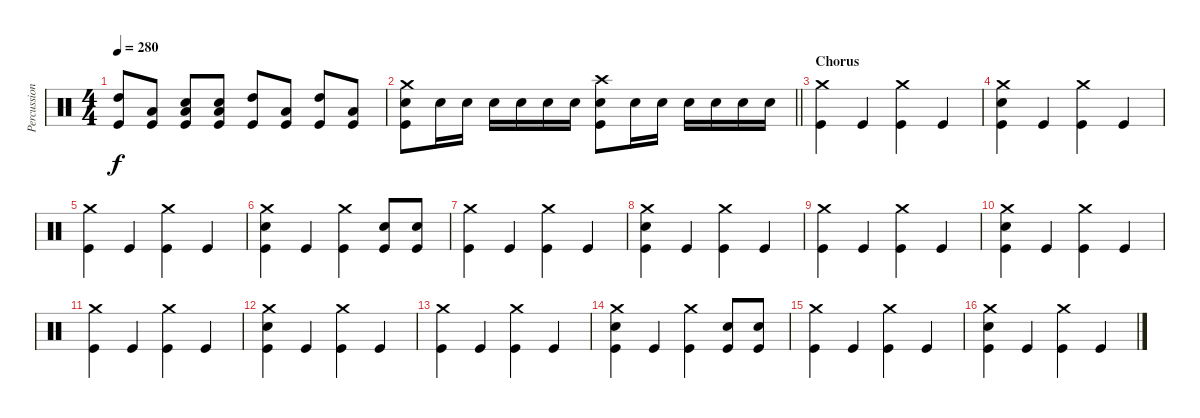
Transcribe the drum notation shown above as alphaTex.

\track ("Percussion" "Percussion") {instrument percussion}
\staff {score}
\articulation defaults
\ts (4 4)
\tempo 280
\clef neutral
\ks c
("High Tom (hit)" "Kick (hit)").8{dy f} ("Low Floor Tom (hit)" "Kick (hit)").8 ("Low Floor Tom (hit)" "Electric Snare (hit)" "Kick (hit)").8 ("Low Floor Tom (hit)" "Electric Snare (hit)" "Kick (hit)").8 ("High Tom (hit)" "Kick (hit)").8 ("Low Floor Tom (hit)" "Kick (hit)").8 ("High Tom (hit)" "Kick (hit)").8 ("Low Floor Tom (hit)" "Kick (hit)").8 |
\barLineRight lightlight
("Crash medium (hit)" "Electric Snare (hit)" "Kick (hit)").8 "Electric Snare (hit)".16 "Electric Snare (hit)".16 "Electric Snare (hit)".16 "Electric Snare (hit)".16 "Electric Snare (hit)".16 "Electric Snare (hit)".16 ("Crash high (hit)" "Electric Snare (hit)" "Kick (hit)").8 "Electric Snare (hit)".16 "Electric Snare (hit)".16 "Electric Snare (hit)".16 "Electric Snare (hit)".16 "Electric Snare (hit)".16 "Electric Snare (hit)".16 |
\section ("" "Chorus")
("Crash medium (hit)" "Kick (hit)").4 "Kick (hit)".4 ("Crash medium (hit)" "Kick (hit)").4 "Kick (hit)".4 |
("Crash medium (hit)" "Electric Snare (hit)" "Kick (hit)").4 "Kick (hit)".4 ("Crash medium (hit)" "Kick (hit)").4 "Kick (hit)".4 |
("Crash medium (hit)" "Kick (hit)").4 "Kick (hit)".4 ("Crash medium (hit)" "Kick (hit)").4 "Kick (hit)".4 |
("Crash medium (hit)" "Electric Snare (hit)" "Kick (hit)").4 "Kick (hit)".4 ("Crash medium (hit)" "Kick (hit)").4 ("Electric Snare (hit)" "Kick (hit)").8 ("Electric Snare (hit)" "Kick (hit)").8 |
("Crash medium (hit)" "Kick (hit)").4 "Kick (hit)".4 ("Crash medium (hit)" "Kick (hit)").4 "Kick (hit)".4 |
("Crash medium (hit)" "Electric Snare (hit)" "Kick (hit)").4 "Kick (hit)".4 ("Crash medium (hit)" "Kick (hit)").4 "Kick (hit)".4 |
("Crash medium (hit)" "Kick (hit)").4 "Kick (hit)".4 ("Crash medium (hit)" "Kick (hit)").4 "Kick (hit)".4 |
("Crash medium (hit)" "Electric Snare (hit)" "Kick (hit)").4 "Kick (hit)".4 ("Crash medium (hit)" "Kick (hit)").4 "Kick (hit)".4 |
("Crash medium (hit)" "Kick (hit)").4 "Kick (hit)".4 ("Crash medium (hit)" "Kick (hit)").4 "Kick (hit)".4 |
("Crash medium (hit)" "Electric Snare (hit)" "Kick (hit)").4 "Kick (hit)".4 ("Crash medium (hit)" "Kick (hit)").4 "Kick (hit)".4 |
("Crash medium (hit)" "Kick (hit)").4 "Kick (hit)".4 ("Crash medium (hit)" "Kick (hit)").4 "Kick (hit)".4 |
("Crash medium (hit)" "Electric Snare (hit)" "Kick (hit)").4 "Kick (hit)".4 ("Crash medium (hit)" "Kick (hit)").4 ("Electric Snare (hit)" "Kick (hit)").8 ("Electric Snare (hit)" "Kick (hit)").8 |
("Crash medium (hit)" "Kick (hit)").4 "Kick (hit)".4 ("Crash medium (hit)" "Kick (hit)").4 "Kick (hit)".4 |
("Crash medium (hit)" "Electric Snare (hit)" "Kick (hit)").4 "Kick (hit)".4 ("Crash medium (hit)" "Kick (hit)").4 "Kick (hit)".4
